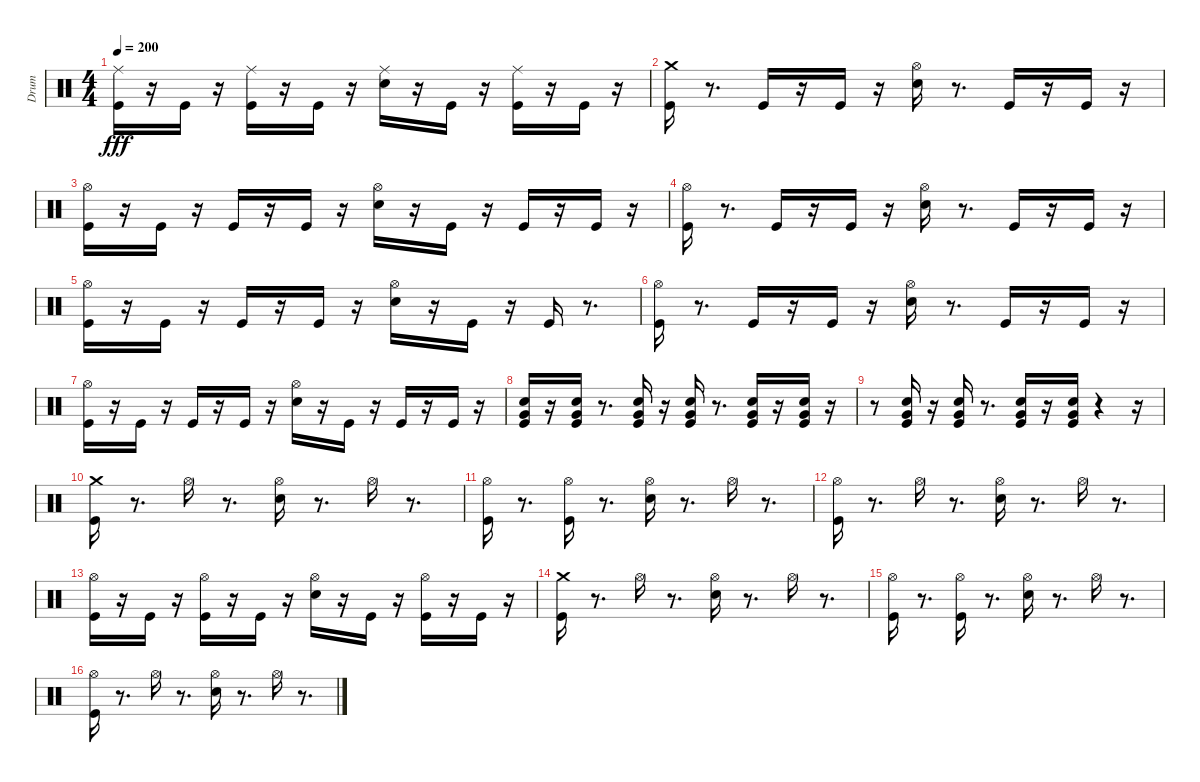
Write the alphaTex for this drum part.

\track ("Drum" "Drum") {instrument percussion}
\staff {score}
\articulation defaults
\ts (4 4)
\tempo 200
\clef neutral
\ks c
("Kick (hit)" "Ride (middle)").16{dy fff} r.16 "Kick (hit)".16 r.16 ("Ride (middle)" "Kick (hit)").16 r.16 "Kick (hit)".16 r.16 ("Ride (middle)" "Snare (hit) 2").16 r.16 "Kick (hit)".16 r.16 ("Kick (hit)" "Ride (middle)").16 r.16 "Kick (hit)".16 r.16 |
("Kick (hit)" "Crash medium (hit)").16 r.8{d} "Kick (hit)".16 r.16 "Kick (hit)".16 r.16 ("Hi-Hat (open)" "Snare (hit) 2").16 r.8{d} "Kick (hit)".16 r.16 "Kick (hit)".16 r.16 |
("Kick (hit)" "Hi-Hat (open)").16 r.16 "Kick (hit)".16 r.16 "Kick (hit)".16 r.16 "Kick (hit)".16 r.16 ("Hi-Hat (open)" "Snare (hit) 2").16 r.16 "Kick (hit)".16 r.16 "Kick (hit)".16 r.16 "Kick (hit)".16 r.16 |
("Hi-Hat (open)" "Kick (hit)").16 r.8{d} "Kick (hit)".16 r.16 "Kick (hit)".16 r.16 ("Hi-Hat (open)" "Snare (hit) 2").16 r.8{d} "Kick (hit)".16 r.16 "Kick (hit)".16 r.16 |
("Hi-Hat (open)" "Kick (hit)").16 r.16 "Kick (hit)".16 r.16 "Kick (hit)".16 r.16 "Kick (hit)".16 r.16 ("Snare (hit) 2" "Hi-Hat (open)").16 r.16 "Kick (hit)".16 r.16 "Kick (hit)".16 r.8{d} |
("Hi-Hat (open)" "Kick (hit)").16 r.8{d} "Kick (hit)".16 r.16 "Kick (hit)".16 r.16 ("Hi-Hat (open)" "Snare (hit) 2").16 r.8{d} "Kick (hit)".16 r.16 "Kick (hit)".16 r.16 |
("Kick (hit)" "Hi-Hat (open)").16 r.16 "Kick (hit)".16 r.16 "Kick (hit)".16 r.16 "Kick (hit)".16 r.16 ("Hi-Hat (open)" "Snare (hit) 2").16 r.16 "Kick (hit)".16 r.16 "Kick (hit)".16 r.16 "Kick (hit)".16 r.16 |
("Very Low Tom (hit)" "Snare (hit) 2" "Kick (hit)").16 r.16 ("Kick (hit)" "Very Low Tom (hit)" "Snare (hit) 2").16 r.8{d} ("Kick (hit)" "Snare (hit) 2" "Very Low Tom (hit)").16 r.16 ("Kick (hit)" "Snare (hit) 2" "Very Low Tom (hit)").16 r.8{d} ("Kick (hit)" "Very Low Tom (hit)" "Snare (hit) 2").16 r.16 ("Very Low Tom (hit)" "Snare (hit) 2" "Kick (hit)").16 r.16 |
r.8 ("Very Low Tom (hit)" "Kick (hit)" "Snare (hit) 2").16 r.16 ("Very Low Tom (hit)" "Snare (hit) 2" "Kick (hit)").16 r.8{d} ("Very Low Tom (hit)" "Kick (hit)" "Snare (hit) 2").16 r.16 ("Snare (hit) 2" "Very Low Tom (hit)" "Kick (hit)").16 r.4 r.16 |
("Kick (hit)" "Crash medium (hit)").16 r.8{d} "Hi-Hat (open)".16 r.8{d} ("Hi-Hat (open)" "Snare (hit) 2").16 r.8{d} "Hi-Hat (open)".16 r.8{d} |
("Hi-Hat (open)" "Kick (hit)").16 r.8{d} ("Hi-Hat (open)" "Kick (hit)").16 r.8{d} ("Snare (hit) 2" "Hi-Hat (open)").16 r.8{d} "Hi-Hat (open)".16 r.8{d} |
("Kick (hit)" "Hi-Hat (open)").16 r.8{d} "Hi-Hat (open)".16 r.8{d} ("Snare (hit) 2" "Hi-Hat (open)").16 r.8{d} "Hi-Hat (open)".16 r.8{d} |
("Hi-Hat (open)" "Kick (hit)").16 r.16 "Kick (hit)".16 r.16 ("Hi-Hat (open)" "Kick (hit)").16 r.16 "Kick (hit)".16 r.16 ("Hi-Hat (open)" "Snare (hit) 2").16 r.16 "Kick (hit)".16 r.16 ("Hi-Hat (open)" "Kick (hit)").16 r.16 "Kick (hit)".16 r.16 |
("Crash medium (hit)" "Kick (hit)").16 r.8{d} "Hi-Hat (open)".16 r.8{d} ("Snare (hit) 2" "Hi-Hat (open)").16 r.8{d} "Hi-Hat (open)".16 r.8{d} |
("Kick (hit)" "Hi-Hat (open)").16 r.8{d} ("Hi-Hat (open)" "Kick (hit)").16 r.8{d} ("Snare (hit) 2" "Hi-Hat (open)").16 r.8{d} "Hi-Hat (open)".16 r.8{d} |
("Kick (hit)" "Hi-Hat (open)").16 r.8{d} "Hi-Hat (open)".16 r.8{d} ("Hi-Hat (open)" "Snare (hit) 2").16 r.8{d} "Hi-Hat (open)".16 r.8{d}
